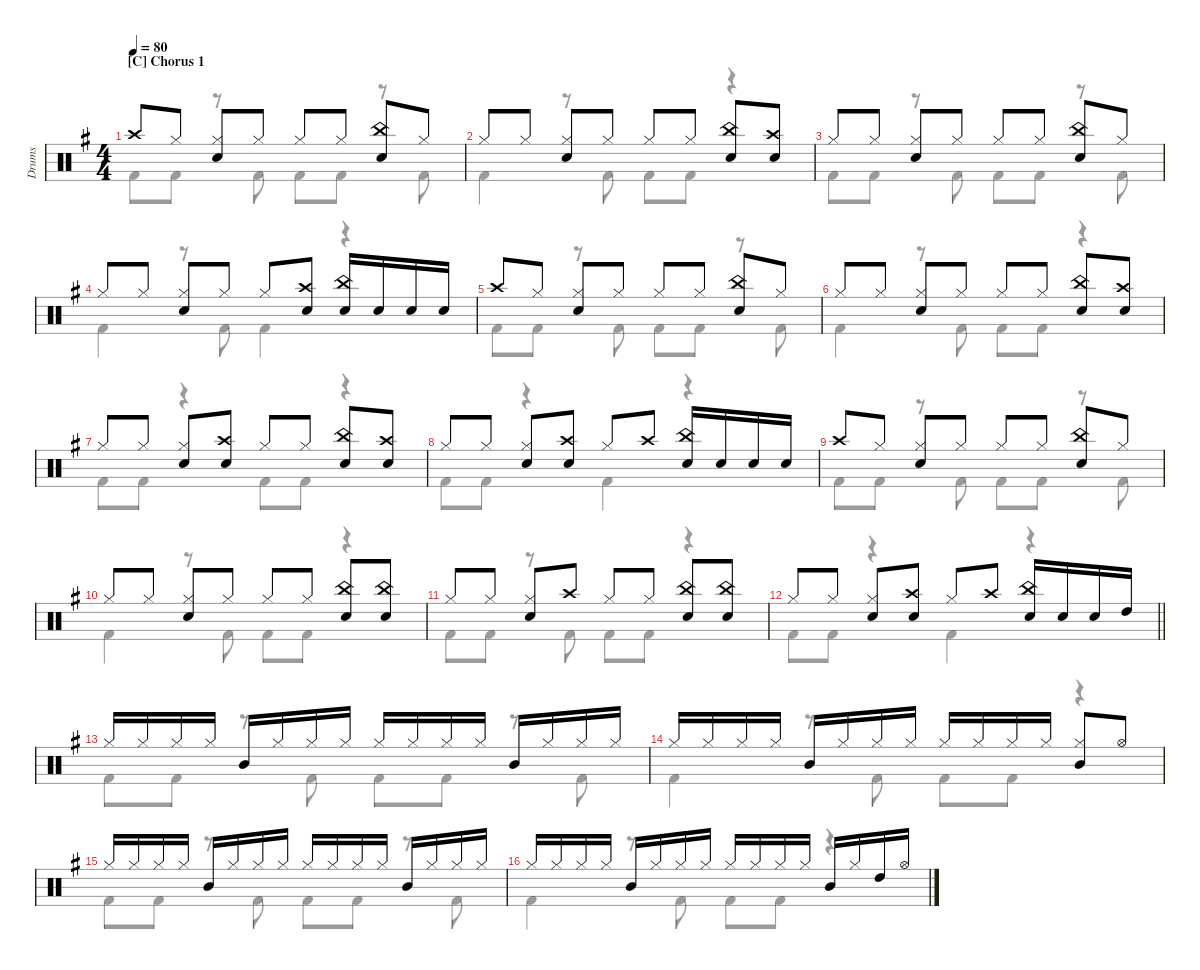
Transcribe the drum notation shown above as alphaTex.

\hideDynamics
\bracketExtendMode nobrackets
\otherSystemsTrackNameOrientation horizontal
\track ("Drums" "Drums") {defaultSystemsLayout 4 multiBarRest instrument percussion}
\staff {score}
\articulation defaults
\voice
\ts (4 4)
\section ("C" "Chorus 1")
\tempo 80
\clef neutral
\ks g "Crash high (hit)"{acc forcenatural}.8{dy f beam Up} "Hi-Hat (closed)"{acc forcenatural}.8{beam Up}
("Hi-Hat (closed)"{acc forcenatural} "Snare (hit) 2"{acc forcenatural}).8{beam Up} "Hi-Hat (closed)"{acc forcenatural}.8{beam Up} "Hi-Hat (closed)"{acc forcenatural}.8{beam Up} "Hi-Hat (closed)"{acc forcenatural}.8{beam Up} ("China (hit)"{acc forcenatural} "Snare (hit) 2"{acc forcenatural}).8{beam Up} "Hi-Hat (closed)"{acc forcenatural}.8{beam Up} |
"Hi-Hat (closed)"{acc forcenatural}.8{beam Up} "Hi-Hat (closed)"{acc forcenatural}.8{beam Up} ("Hi-Hat (closed)"{acc forcenatural} "Snare (hit) 2"{acc forcenatural}).8{beam Up} "Hi-Hat (closed)"{acc forcenatural}.8{beam Up} "Hi-Hat (closed)"{acc forcenatural}.8{beam Up} "Hi-Hat (closed)"{acc forcenatural}.8{beam Up} ("China (hit)"{acc forcenatural} "Snare (hit) 2"{acc forcenatural}).8{beam Up} ("Snare (hit) 2"{acc forcenatural} "Crash high (hit)"{acc forcenatural}).8{beam Up} |
"Hi-Hat (closed)"{acc forcenatural}.8{beam Up} "Hi-Hat (closed)"{acc forcenatural}.8{beam Up} ("Hi-Hat (closed)"{acc forcenatural} "Snare (hit) 2"{acc forcenatural}).8{beam Up} "Hi-Hat (closed)"{acc forcenatural}.8{beam Up} "Hi-Hat (closed)"{acc forcenatural}.8{beam Up} "Hi-Hat (closed)"{acc forcenatural}.8{beam Up} ("China (hit)"{acc forcenatural} "Snare (hit) 2"{acc forcenatural}).8{beam Up} "Hi-Hat (closed)"{acc forcenatural}.8{beam Up} |
"Hi-Hat (closed)"{acc forcenatural}.8{beam Up} "Hi-Hat (closed)"{acc forcenatural}.8{beam Up} ("Hi-Hat (closed)"{acc forcenatural} "Snare (hit) 2"{acc forcenatural}).8{beam Up} "Hi-Hat (closed)"{acc forcenatural}.8{beam Up} "Hi-Hat (closed)"{acc forcenatural}.8{beam Up} ("Snare (hit) 2"{acc forcenatural} "Crash high (hit)"{acc forcenatural}).8{beam Up} ("Snare (hit) 2"{acc forcenatural} "China (hit)"{acc forcenatural}).16{beam Up} "Snare (hit) 2"{acc forcenatural}.16{beam Up} "Snare (hit) 2"{acc forcenatural}.16{beam Up} "Snare (hit) 2"{acc forcenatural}.16{beam Up} |
"Crash high (hit)"{acc forcenatural}.8{beam Up} "Hi-Hat (closed)"{acc forcenatural}.8{beam Up} ("Hi-Hat (closed)"{acc forcenatural} "Snare (hit) 2"{acc forcenatural}).8{beam Up} "Hi-Hat (closed)"{acc forcenatural}.8{beam Up} "Hi-Hat (closed)"{acc forcenatural}.8{beam Up} "Hi-Hat (closed)"{acc forcenatural}.8{beam Up} ("China (hit)"{acc forcenatural} "Snare (hit) 2"{acc forcenatural}).8{beam Up} "Hi-Hat (closed)"{acc forcenatural}.8{beam Up} |
"Hi-Hat (closed)"{acc forcenatural}.8{beam Up} "Hi-Hat (closed)"{acc forcenatural}.8{beam Up} ("Hi-Hat (closed)"{acc forcenatural} "Snare (hit) 2"{acc forcenatural}).8{beam Up} "Hi-Hat (closed)"{acc forcenatural}.8{beam Up} "Hi-Hat (closed)"{acc forcenatural}.8{beam Up} "Hi-Hat (closed)"{acc forcenatural}.8{beam Up} ("China (hit)"{acc forcenatural} "Snare (hit) 2"{acc forcenatural}).8{beam Up} ("Snare (hit) 2"{acc forcenatural} "Crash high (hit)"{acc forcenatural}).8{beam Up} |
"Hi-Hat (closed)"{acc forcenatural}.8{beam Up} "Hi-Hat (closed)"{acc forcenatural}.8{beam Up} ("Hi-Hat (closed)"{acc forcenatural} "Snare (hit) 2"{acc forcenatural}).8{beam Up} ("Snare (hit) 2"{acc forcenatural} "Crash high (hit)"{acc forcenatural}).8{beam Up} "Hi-Hat (closed)"{acc forcenatural}.8{beam Up} "Hi-Hat (closed)"{acc forcenatural}.8{beam Up} ("China (hit)"{acc forcenatural} "Snare (hit) 2"{acc forcenatural}).8{beam Up} ("Snare (hit) 2"{acc forcenatural} "Crash high (hit)"{acc forcenatural}).8{beam Up} |
"Hi-Hat (closed)"{acc forcenatural}.8{beam Up} "Hi-Hat (closed)"{acc forcenatural}.8{beam Up} ("Hi-Hat (closed)"{acc forcenatural} "Snare (hit) 2"{acc forcenatural}).8{beam Up} ("Snare (hit) 2"{acc forcenatural} "Crash high (hit)"{acc forcenatural}).8{beam Up} "Hi-Hat (closed)"{acc forcenatural}.8{beam Up} "Crash high (hit)"{acc forcenatural}.8{beam Up} ("Snare (hit) 2"{acc forcenatural} "China (hit)"{acc forcenatural}).16{beam Up} "Snare (hit) 2"{acc forcenatural}.16{beam Up} "Snare (hit) 2"{acc forcenatural}.16{beam Up} "Snare (hit) 2"{acc forcenatural}.16{beam Up} |
"Crash high (hit)"{acc forcenatural}.8{beam Up} "Hi-Hat (closed)"{acc forcenatural}.8{beam Up} ("Hi-Hat (closed)"{acc forcenatural} "Snare (hit) 2"{acc forcenatural}).8{beam Up} "Hi-Hat (closed)"{acc forcenatural}.8{beam Up} "Hi-Hat (closed)"{acc forcenatural}.8{beam Up} "Hi-Hat (closed)"{acc forcenatural}.8{beam Up} ("China (hit)"{acc forcenatural} "Snare (hit) 2"{acc forcenatural}).8{beam Up} "Hi-Hat (closed)"{acc forcenatural}.8{beam Up} |
"Hi-Hat (closed)"{acc forcenatural}.8{beam Up} "Hi-Hat (closed)"{acc forcenatural}.8{beam Up} ("Hi-Hat (closed)"{acc forcenatural} "Snare (hit) 2"{acc forcenatural}).8{beam Up} "Hi-Hat (closed)"{acc forcenatural}.8{beam Up} "Hi-Hat (closed)"{acc forcenatural}.8{beam Up} "Hi-Hat (closed)"{acc forcenatural}.8{beam Up} ("China (hit)"{acc forcenatural} "Snare (hit) 2"{acc forcenatural}).8{beam Up} ("Snare (hit) 2"{acc forcenatural} "China (hit)"{acc forcenatural}).8{beam Up} |
"Hi-Hat (closed)"{acc forcenatural}.8{beam Up} "Hi-Hat (closed)"{acc forcenatural}.8{beam Up} ("Hi-Hat (closed)"{acc forcenatural} "Snare (hit) 2"{acc forcenatural}).8{beam Up} "Crash high (hit)"{acc forcenatural}.8{beam Up} "Hi-Hat (closed)"{acc forcenatural}.8{beam Up} "Hi-Hat (closed)"{acc forcenatural}.8{beam Up} ("China (hit)"{acc forcenatural} "Snare (hit) 2"{acc forcenatural}).8{beam Up} ("Snare (hit) 2"{acc forcenatural} "China (hit)"{acc forcenatural}).8{beam Up} |
\barLineRight lightlight "Hi-Hat (closed)"{acc forcenatural}.8{beam Up} "Hi-Hat (closed)"{acc forcenatural}.8{beam Up}
("Hi-Hat (closed)"{acc forcenatural} "Snare (hit) 2"{acc forcenatural}).8{beam Up} ("Snare (hit) 2"{acc forcenatural} "Crash high (hit)"{acc forcenatural}).8{beam Up} "Hi-Hat (closed)"{acc forcenatural}.8{beam Up} "Crash high (hit)"{acc forcenatural}.8{beam Up} ("Snare (hit) 2"{acc forcenatural} "China (hit)"{acc forcenatural}).16{beam Up} "Snare (hit) 2"{acc forcenatural}.16{beam Up} "Snare (hit) 2"{acc forcenatural}.16{dy mf beam Up} "High Tom (hit)"{acc forcenatural}.16{dy f beam Up} |
"Hi-Hat (closed)"{acc forcenatural}.16{beam Up} "Hi-Hat (closed)"{acc forcenatural}.16{beam Up} "Hi-Hat (closed)"{acc forcenatural}.16{beam Up} "Hi-Hat (closed)"{acc forcenatural}.16{beam Up} "Mid Tom (hit)"{acc forcenatural}.16{beam Up} "Hi-Hat (closed)"{acc forcenatural}.16{beam Up} "Hi-Hat (closed)"{acc forcenatural}.16{beam Up} "Hi-Hat (closed)"{acc forcenatural}.16{beam Up} "Hi-Hat (closed)"{acc forcenatural}.16{beam Up} "Hi-Hat (closed)"{acc forcenatural}.16{beam Up} "Hi-Hat (closed)"{acc forcenatural}.16{beam Up} "Hi-Hat (closed)"{acc forcenatural}.16{beam Up} "Mid Tom (hit)"{acc forcenatural}.16{beam Up} "Hi-Hat (closed)"{acc forcenatural}.16{beam Up} "Hi-Hat (closed)"{acc forcenatural}.16{beam Up} "Hi-Hat (closed)"{acc forcenatural}.16{beam Up} |
"Hi-Hat (closed)"{acc forcenatural}.16{beam Up} "Hi-Hat (closed)"{acc forcenatural}.16{beam Up} "Hi-Hat (closed)"{acc forcenatural}.16{beam Up} "Hi-Hat (closed)"{acc forcenatural}.16{beam Up} "Mid Tom (hit)"{acc forcenatural}.16{beam Up} "Hi-Hat (closed)"{acc forcenatural}.16{beam Up} "Hi-Hat (closed)"{acc forcenatural}.16{beam Up} "Hi-Hat (closed)"{acc forcenatural}.16{beam Up} "Hi-Hat (closed)"{acc forcenatural}.16{beam Up} "Hi-Hat (closed)"{acc forcenatural}.16{beam Up} "Hi-Hat (closed)"{acc forcenatural}.16{beam Up} "Hi-Hat (closed)"{acc forcenatural}.16{beam Up} ("Hi-Hat (closed)"{acc forcenatural} "Mid Tom (hit)"{acc forcenatural}).8{beam Up} "Hi-Hat (open)"{acc forcenatural}.8{beam Up} |
"Hi-Hat (closed)"{acc forcenatural}.16{beam Up} "Hi-Hat (closed)"{acc forcenatural}.16{beam Up} "Hi-Hat (closed)"{acc forcenatural}.16{beam Up} "Hi-Hat (closed)"{acc forcenatural}.16{beam Up} "Mid Tom (hit)"{acc forcenatural}.16{beam Up} "Hi-Hat (closed)"{acc forcenatural}.16{beam Up} "Hi-Hat (closed)"{acc forcenatural}.16{beam Up} "Hi-Hat (closed)"{acc forcenatural}.16{beam Up} "Hi-Hat (closed)"{acc forcenatural}.16{beam Up} "Hi-Hat (closed)"{acc forcenatural}.16{beam Up} "Hi-Hat (closed)"{acc forcenatural}.16{beam Up} "Hi-Hat (closed)"{acc forcenatural}.16{beam Up} "Mid Tom (hit)"{acc forcenatural}.16{beam Up} "Hi-Hat (closed)"{acc forcenatural}.16{beam Up} "Hi-Hat (closed)"{acc forcenatural}.16{beam Up} "Hi-Hat (closed)"{acc forcenatural}.16{beam Up} |
"Hi-Hat (closed)"{acc forcenatural}.16{beam Up} "Hi-Hat (closed)"{acc forcenatural}.16{beam Up} "Hi-Hat (closed)"{acc forcenatural}.16{beam Up} "Hi-Hat (closed)"{acc forcenatural}.16{beam Up} "Mid Tom (hit)"{acc forcenatural}.16{beam Up} "Hi-Hat (closed)"{acc forcenatural}.16{beam Up} "Hi-Hat (closed)"{acc forcenatural}.16{beam Up} "Hi-Hat (closed)"{acc forcenatural}.16{beam Up} "Hi-Hat (closed)"{acc forcenatural}.16{beam Up} "Hi-Hat (closed)"{acc forcenatural}.16{beam Up} "Hi-Hat (closed)"{acc forcenatural}.16{beam Up} "Hi-Hat (closed)"{acc forcenatural}.16{beam Up} "Mid Tom (hit)"{acc forcenatural}.16{beam Up} "Hi-Hat (closed)"{acc forcenatural}.16{beam Up} "High Tom (hit)"{acc forcenatural}.16{beam Up} "Hi-Hat (open)"{acc forcenatural}.16{beam Up}
\voice
\clef neutral
\ottava regular
\simile none
\ks g "Kick (hit) 2"{acc forcenatural}.8{dy mf beam Down} "Kick (hit) 2"{acc forcenatural}.8{beam Down}
r.8{beam Down} "Kick (hit) 2"{acc forcenatural}.8{beam Down} "Kick (hit) 2"{acc forcenatural}.8{beam Down} "Kick (hit) 2"{acc forcenatural}.8{beam Down} r.8{beam Down} "Kick (hit) 2"{acc forcenatural}.8{beam Down} |
"Kick (hit) 2"{acc forcenatural}.4{beam Down} r.8{beam Down} "Kick (hit) 2"{acc forcenatural}.8{beam Down} "Kick (hit) 2"{acc forcenatural}.8{beam Down} "Kick (hit) 2"{acc forcenatural}.8{beam Down} r.4{beam Down} |
"Kick (hit) 2"{acc forcenatural}.8{beam Down} "Kick (hit) 2"{acc forcenatural}.8{beam Down} r.8{beam Down} "Kick (hit) 2"{acc forcenatural}.8{beam Down} "Kick (hit) 2"{acc forcenatural}.8{beam Down} "Kick (hit) 2"{acc forcenatural}.8{beam Down} r.8{beam Down} "Kick (hit) 2"{acc forcenatural}.8{beam Down} |
"Kick (hit) 2"{acc forcenatural}.4{beam Down} r.8{beam Down} "Kick (hit) 2"{acc forcenatural}.8{beam Down} "Kick (hit) 2"{acc forcenatural}.4{beam Down} r.4{beam Down} |
"Kick (hit) 2"{acc forcenatural}.8{beam Down} "Kick (hit) 2"{acc forcenatural}.8{beam Down} r.8{beam Down} "Kick (hit) 2"{acc forcenatural}.8{beam Down} "Kick (hit) 2"{acc forcenatural}.8{beam Down} "Kick (hit) 2"{acc forcenatural}.8{beam Down} r.8{beam Down} "Kick (hit) 2"{acc forcenatural}.8{beam Down} |
"Kick (hit) 2"{acc forcenatural}.4{beam Down} r.8{beam Down} "Kick (hit) 2"{acc forcenatural}.8{beam Down} "Kick (hit) 2"{acc forcenatural}.8{beam Down} "Kick (hit) 2"{acc forcenatural}.8{beam Down} r.4{beam Down} |
"Kick (hit) 2"{acc forcenatural}.8{beam Down} "Kick (hit) 2"{acc forcenatural}.8{beam Down} r.4{beam Down} "Kick (hit) 2"{acc forcenatural}.8{beam Down} "Kick (hit) 2"{acc forcenatural}.8{beam Down} r.4{beam Down} |
"Kick (hit) 2"{acc forcenatural}.8{beam Down} "Kick (hit) 2"{acc forcenatural}.8{beam Down} r.4{beam Down} "Kick (hit) 2"{acc forcenatural}.4{beam Down} r.4{beam Down} |
"Kick (hit) 2"{acc forcenatural}.8{beam Down} "Kick (hit) 2"{acc forcenatural}.8{beam Down} r.8{beam Down} "Kick (hit) 2"{acc forcenatural}.8{beam Down} "Kick (hit) 2"{acc forcenatural}.8{beam Down} "Kick (hit) 2"{acc forcenatural}.8{beam Down} r.8{beam Down} "Kick (hit) 2"{acc forcenatural}.8{beam Down} |
"Kick (hit) 2"{acc forcenatural}.4{beam Down} r.8{beam Down} "Kick (hit) 2"{acc forcenatural}.8{beam Down} "Kick (hit) 2"{acc forcenatural}.8{beam Down} "Kick (hit) 2"{acc forcenatural}.8{beam Down} r.4{beam Down} |
"Kick (hit) 2"{acc forcenatural}.8{beam Down} "Kick (hit) 2"{acc forcenatural}.8{beam Down} r.8{beam Down} "Kick (hit) 2"{acc forcenatural}.8{beam Down} "Kick (hit) 2"{acc forcenatural}.8{beam Down} "Kick (hit) 2"{acc forcenatural}.8{beam Down} r.4{beam Down} |
\barLineRight lightlight "Kick (hit) 2"{acc forcenatural}.8{beam Down} "Kick (hit) 2"{acc forcenatural}.8{beam Down}
r.4{beam Down} "Kick (hit) 2"{acc forcenatural}.4{beam Down} r.4{beam Down} |
"Kick (hit) 2"{acc forcenatural}.8{beam Down} "Kick (hit) 2"{acc forcenatural}.8{beam Down} r.8{beam Down} "Kick (hit) 2"{acc forcenatural}.8{beam Down} "Kick (hit) 2"{acc forcenatural}.8{beam Down} "Kick (hit) 2"{acc forcenatural}.8{beam Down} r.8{beam Down} "Kick (hit) 2"{acc forcenatural}.8{beam Down} |
"Kick (hit) 2"{acc forcenatural}.4{beam Down} r.8{beam Down} "Kick (hit) 2"{acc forcenatural}.8{beam Down} "Kick (hit) 2"{acc forcenatural}.8{beam Down} "Kick (hit) 2"{acc forcenatural}.8{beam Down} r.4{beam Down} |
"Kick (hit) 2"{acc forcenatural}.8{beam Down} "Kick (hit) 2"{acc forcenatural}.8{beam Down} r.8{beam Down} "Kick (hit) 2"{acc forcenatural}.8{beam Down} "Kick (hit) 2"{acc forcenatural}.8{beam Down} "Kick (hit) 2"{acc forcenatural}.8{beam Down} r.8{beam Down} "Kick (hit) 2"{acc forcenatural}.8{beam Down} |
"Kick (hit) 2"{acc forcenatural}.4{beam Down} r.8{beam Down} "Kick (hit) 2"{acc forcenatural}.8{beam Down} "Kick (hit) 2"{acc forcenatural}.8{beam Down} "Kick (hit) 2"{acc forcenatural}.8{beam Down} r.4{beam Down}
